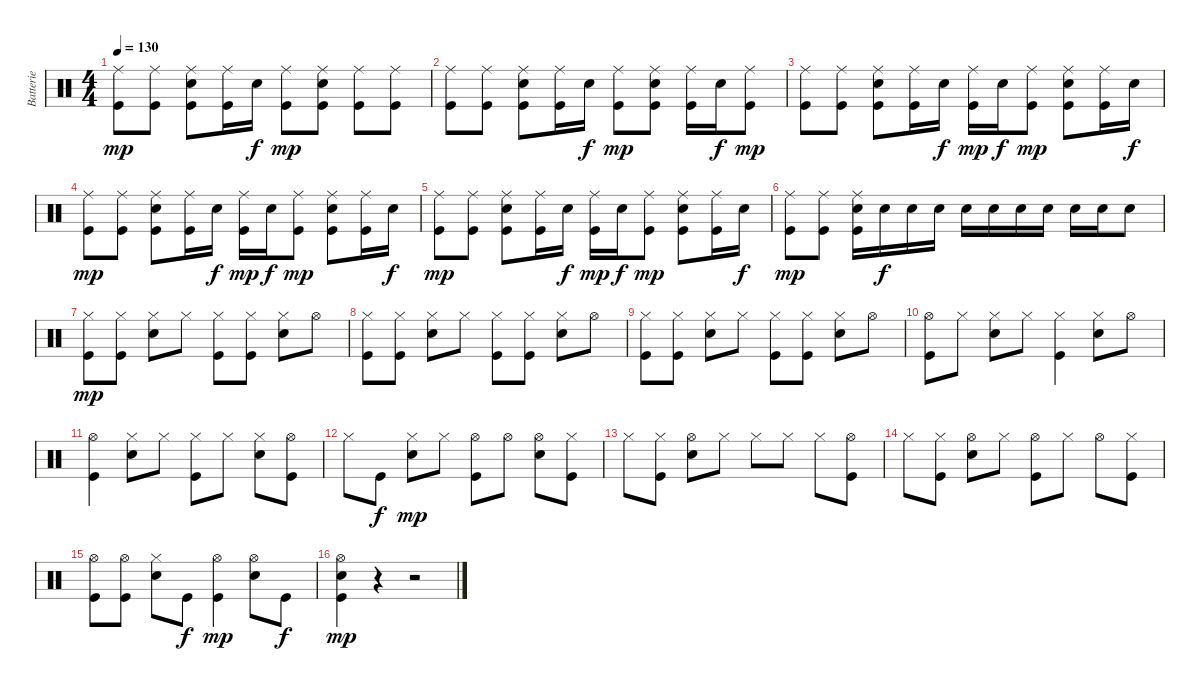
\track ("Batterie" "Batterie") {instrument percussion}
\staff {score}
\articulation defaults
\ts (4 4)
\tempo 130
\clef neutral
\ks c
("Ride (middle)" "Kick (hit)").8{dy mp} ("Ride (middle)" "Kick (hit)").8 ("Ride (middle)" "Snare (hit) 2" "Kick (hit)").8 ("Ride (middle)" "Kick (hit)").16 "Snare (hit) 2".16{dy f} ("Ride (middle)" "Kick (hit)").8{dy mp} ("Ride (middle)" "Snare (hit) 2" "Kick (hit)").8 ("Ride (middle)" "Kick (hit)").8 ("Ride (middle)" "Kick (hit)").8 |
("Ride (middle)" "Kick (hit)").8 ("Ride (middle)" "Kick (hit)").8 ("Ride (middle)" "Snare (hit) 2" "Kick (hit)").8 ("Ride (middle)" "Kick (hit)").16 "Snare (hit) 2".16{dy f} ("Ride (middle)" "Kick (hit)").8{dy mp} ("Ride (middle)" "Snare (hit) 2" "Kick (hit)").8 ("Ride (middle)" "Kick (hit)").16 "Snare (hit) 2".16{dy f} ("Ride (middle)" "Kick (hit)").8{dy mp} |
("Ride (middle)" "Kick (hit)").8 ("Ride (middle)" "Kick (hit)").8 ("Ride (middle)" "Snare (hit) 2" "Kick (hit)").8 ("Ride (middle)" "Kick (hit)").16 "Snare (hit) 2".16{dy f} ("Ride (middle)" "Kick (hit)").16{dy mp} "Snare (hit) 2".16{dy f} ("Ride (middle)" "Kick (hit)").8{dy mp} ("Ride (middle)" "Snare (hit) 2" "Kick (hit)").8 ("Ride (middle)" "Kick (hit)").16 "Snare (hit) 2".16{dy f} |
("Ride (middle)" "Kick (hit)").8{dy mp} ("Ride (middle)" "Kick (hit)").8 ("Ride (middle)" "Snare (hit) 2" "Kick (hit)").8 ("Ride (middle)" "Kick (hit)").16 "Snare (hit) 2".16{dy f} ("Ride (middle)" "Kick (hit)").16{dy mp} "Snare (hit) 2".16{dy f} ("Ride (middle)" "Kick (hit)").8{dy mp} ("Ride (middle)" "Snare (hit) 2" "Kick (hit)").8 ("Ride (middle)" "Kick (hit)").16 "Snare (hit) 2".16{dy f} |
("Ride (middle)" "Kick (hit)").8{dy mp} ("Ride (middle)" "Kick (hit)").8 ("Ride (middle)" "Snare (hit) 2" "Kick (hit)").8 ("Ride (middle)" "Kick (hit)").16 "Snare (hit) 2".16{dy f} ("Ride (middle)" "Kick (hit)").16{dy mp} "Snare (hit) 2".16{dy f} ("Ride (middle)" "Kick (hit)").8{dy mp} ("Ride (middle)" "Snare (hit) 2" "Kick (hit)").8 ("Ride (middle)" "Kick (hit)").16 "Snare (hit) 2".16{dy f} |
("Ride (middle)" "Kick (hit)").8{dy mp} ("Ride (middle)" "Kick (hit)").8 ("Ride (middle)" "Snare (hit) 2" "Kick (hit)").16 "Snare (hit) 2".16{dy f} "Snare (hit) 2".16 "Snare (hit) 2".16 "Snare (hit) 2".16 "Snare (hit) 2".16 "Snare (hit) 2".16 "Snare (hit) 2".16 "Snare (hit) 2".16 "Snare (hit) 2".16 "Snare (hit) 2".8 |
("Hi-Hat (closed)" "Kick (hit)").8{dy mp} ("Hi-Hat (closed)" "Kick (hit)").8 ("Hi-Hat (closed)" "Snare (hit) 2").8 "Hi-Hat (closed)".8 ("Hi-Hat (closed)" "Kick (hit)").8 ("Hi-Hat (closed)" "Kick (hit)").8 ("Hi-Hat (closed)" "Snare (hit) 2").8 "Hi-Hat (open)".8 |
("Hi-Hat (closed)" "Kick (hit)").8 ("Hi-Hat (closed)" "Kick (hit)").8 ("Hi-Hat (closed)" "Snare (hit) 2").8 "Hi-Hat (closed)".8 ("Hi-Hat (closed)" "Kick (hit)").8 ("Hi-Hat (closed)" "Kick (hit)").8 ("Hi-Hat (closed)" "Snare (hit) 2").8 "Hi-Hat (open)".8 |
("Hi-Hat (closed)" "Kick (hit)").8 ("Hi-Hat (closed)" "Kick (hit)").8 ("Hi-Hat (closed)" "Snare (hit) 2").8 "Hi-Hat (closed)".8 ("Hi-Hat (closed)" "Kick (hit)").8 ("Hi-Hat (closed)" "Kick (hit)").8 ("Hi-Hat (closed)" "Snare (hit) 2").8 "Hi-Hat (open)".8 |
("Hi-Hat (open)" "Kick (hit)").8 "Hi-Hat (closed)".8 ("Hi-Hat (closed)" "Snare (hit) 2").8 "Hi-Hat (closed)".8 ("Hi-Hat (closed)" "Kick (hit)").4 ("Hi-Hat (closed)" "Snare (hit) 2").8 "Hi-Hat (open)".8 |
("Hi-Hat (open)" "Kick (hit)").4 ("Hi-Hat (closed)" "Snare (hit) 2").8 "Hi-Hat (closed)".8 ("Hi-Hat (closed)" "Kick (hit)").8 "Hi-Hat (closed)".8 ("Hi-Hat (closed)" "Snare (hit) 2").8 ("Hi-Hat (open)" "Kick (hit)").8 |
"Hi-Hat (closed)".8 "Kick (hit)".8{dy f} ("Hi-Hat (closed)" "Snare (hit) 2").8{dy mp} "Hi-Hat (closed)".8 ("Hi-Hat (open)" "Kick (hit)").8 "Hi-Hat (open)".8 ("Hi-Hat (open)" "Snare (hit) 2").8 ("Hi-Hat (closed)" "Kick (hit)").8 |
"Hi-Hat (closed)".8 ("Hi-Hat (closed)" "Kick (hit)").8 ("Hi-Hat (open)" "Snare (hit) 2").8 "Hi-Hat (closed)".8 "Hi-Hat (closed)".8 "Hi-Hat (closed)".8 "Hi-Hat (closed)".8 ("Hi-Hat (open)" "Kick (hit)").8 |
"Hi-Hat (closed)".8 ("Hi-Hat (closed)" "Kick (hit)").8 ("Hi-Hat (open)" "Snare (hit) 2").8 "Hi-Hat (closed)".8 ("Hi-Hat (open)" "Kick (hit)").8 "Hi-Hat (closed)".8 "Hi-Hat (open)".8 ("Hi-Hat (closed)" "Kick (hit)").8 |
("Hi-Hat (open)" "Kick (hit)").8 ("Hi-Hat (open)" "Kick (hit)").8 ("Hi-Hat (closed)" "Snare (hit) 2").8 "Kick (hit)".8{dy f} ("Hi-Hat (open)" "Kick (hit)").4{dy mp} ("Hi-Hat (open)" "Snare (hit) 2").8 "Kick (hit)".8{dy f} |
("Hi-Hat (open)" "Snare (hit) 2" "Kick (hit)").4{dy mp} r.4 r.2
